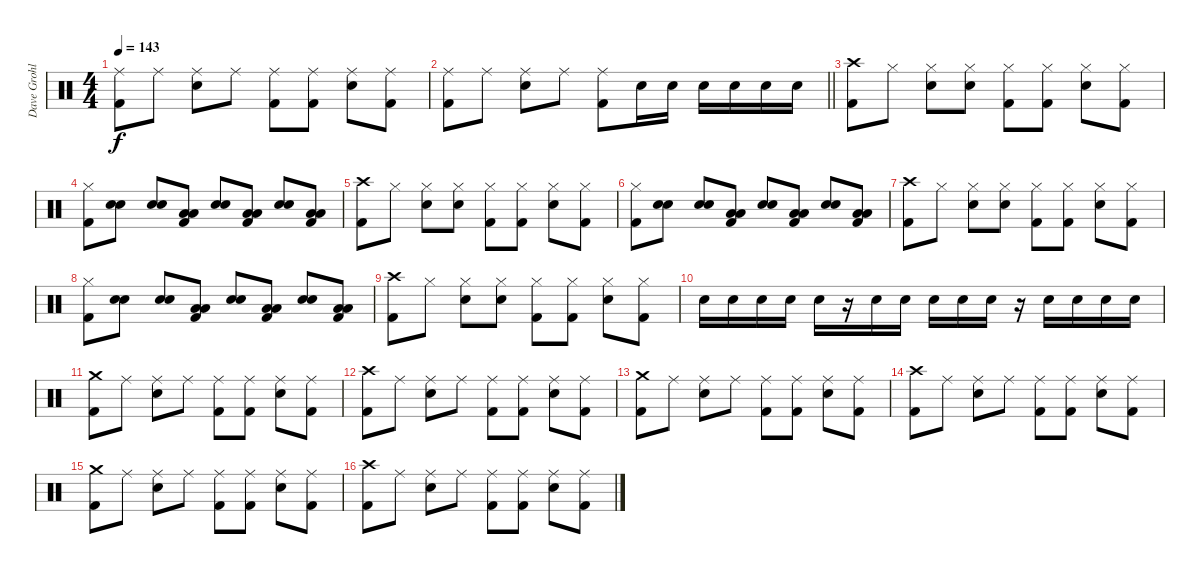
\track ("Dave Grohl" "Dave Grohl") {instrument percussion}
\staff {score}
\articulation defaults
\ts (4 4)
\tempo 143
\clef neutral
\ks c
("Ride (middle)" "Kick (hit) 2").8{dy f} "Ride (middle)".8 ("Ride (middle)" "Snare (hit) 2").8 "Ride (middle)".8 ("Ride (middle)" "Kick (hit) 2").8 ("Ride (middle)" "Kick (hit) 2").8 ("Ride (middle)" "Snare (hit) 2").8 ("Ride (middle)" "Kick (hit) 2").8 |
\barLineRight lightlight
("Ride (middle)" "Kick (hit) 2").8 "Ride (middle)".8 ("Ride (middle)" "Snare (hit) 2").8 "Ride (middle)".8 ("Ride (middle)" "Kick (hit) 2").8 "Snare (hit) 2".16 "Snare (hit) 2".16 "Snare (hit) 2".16 "Snare (hit) 2".16 "Snare (hit) 2".16 "Snare (hit) 2".16 |
("Crash high (hit)" "Kick (hit) 2").8 "Hi-Hat (closed)".8 ("Hi-Hat (closed)" "Snare (hit) 2").8 ("Hi-Hat (closed)" "Snare (hit) 2").8 ("Hi-Hat (closed)" "Kick (hit) 2").8 ("Hi-Hat (closed)" "Kick (hit) 2").8 ("Hi-Hat (closed)" "Snare (hit) 2").8 ("Hi-Hat (closed)" "Kick (hit) 2").8 |
("Hi-Hat (closed)" "Kick (hit) 2").8 ("Snare (hit) 2" "Snare (hit) 2").8{bd 120} ("Snare (hit) 2" "Snare (hit) 2").8{bd 120} ("Low Floor Tom (hit)" "Low Tom (hit)" "Kick (hit) 2").8 ("Snare (hit) 2" "Snare (hit) 2").8{bd 120} ("Low Floor Tom (hit)" "Low Tom (hit)" "Kick (hit) 2").8 ("Snare (hit) 2" "Snare (hit) 2").8{bd 120} ("Low Floor Tom (hit)" "Low Tom (hit)" "Kick (hit) 2").8 |
("Crash high (hit)" "Kick (hit) 2").8 "Hi-Hat (closed)".8 ("Hi-Hat (closed)" "Snare (hit) 2").8 ("Hi-Hat (closed)" "Snare (hit) 2").8 ("Hi-Hat (closed)" "Kick (hit) 2").8 ("Hi-Hat (closed)" "Kick (hit) 2").8 ("Hi-Hat (closed)" "Snare (hit) 2").8 ("Hi-Hat (closed)" "Kick (hit) 2").8 |
("Hi-Hat (closed)" "Kick (hit) 2").8 ("Snare (hit) 2" "Snare (hit) 2").8{bd 120} ("Snare (hit) 2" "Snare (hit) 2").8{bd 120} ("Low Floor Tom (hit)" "Low Tom (hit)" "Kick (hit) 2").8 ("Snare (hit) 2" "Snare (hit) 2").8{bd 120} ("Low Floor Tom (hit)" "Low Tom (hit)" "Kick (hit) 2").8 ("Snare (hit) 2" "Snare (hit) 2").8{bd 120} ("Low Floor Tom (hit)" "Low Tom (hit)" "Kick (hit) 2").8 |
("Crash high (hit)" "Kick (hit) 2").8 "Hi-Hat (closed)".8 ("Hi-Hat (closed)" "Snare (hit) 2").8 ("Hi-Hat (closed)" "Snare (hit) 2").8 ("Hi-Hat (closed)" "Kick (hit) 2").8 ("Hi-Hat (closed)" "Kick (hit) 2").8 ("Hi-Hat (closed)" "Snare (hit) 2").8 ("Hi-Hat (closed)" "Kick (hit) 2").8 |
("Hi-Hat (closed)" "Kick (hit) 2").8 ("Snare (hit) 2" "Snare (hit) 2").8{bd 120} ("Snare (hit) 2" "Snare (hit) 2").8{bd 120} ("Low Floor Tom (hit)" "Low Tom (hit)" "Kick (hit) 2").8 ("Snare (hit) 2" "Snare (hit) 2").8{bd 120} ("Low Floor Tom (hit)" "Low Tom (hit)" "Kick (hit) 2").8 ("Snare (hit) 2" "Snare (hit) 2").8{bd 120} ("Low Floor Tom (hit)" "Low Tom (hit)" "Kick (hit) 2").8 |
("Crash high (hit)" "Kick (hit) 2").8 "Hi-Hat (closed)".8 ("Hi-Hat (closed)" "Snare (hit) 2").8 ("Hi-Hat (closed)" "Snare (hit) 2").8 ("Hi-Hat (closed)" "Kick (hit) 2").8 ("Hi-Hat (closed)" "Kick (hit) 2").8 ("Hi-Hat (closed)" "Snare (hit) 2").8 ("Hi-Hat (closed)" "Kick (hit) 2").8 |
"Snare (hit) 2".16 "Snare (hit) 2".16 "Snare (hit) 2".16 "Snare (hit) 2".16 "Snare (hit) 2".16 r.16 "Snare (hit) 2".16 "Snare (hit) 2".16 "Snare (hit) 2".16 "Snare (hit) 2".16 "Snare (hit) 2".16 r.16 "Snare (hit) 2".16 "Snare (hit) 2".16 "Snare (hit) 2".16 "Snare (hit) 2".16 |
("Crash medium (hit)" "Kick (hit) 2").8 "Ride (middle)".8 ("Ride (middle)" "Snare (hit) 2").8 "Ride (middle)".8 ("Ride (middle)" "Kick (hit) 2").8 ("Ride (middle)" "Kick (hit) 2").8 ("Ride (middle)" "Snare (hit) 2").8 ("Ride (middle)" "Kick (hit) 2").8 |
("Crash high (hit)" "Kick (hit) 2").8 "Ride (middle)".8 ("Ride (middle)" "Snare (hit) 2").8 "Ride (middle)".8 ("Ride (middle)" "Kick (hit) 2").8 ("Ride (middle)" "Kick (hit) 2").8 ("Ride (middle)" "Snare (hit) 2").8 ("Ride (middle)" "Kick (hit) 2").8 |
("Crash medium (hit)" "Kick (hit) 2").8 "Ride (middle)".8 ("Ride (middle)" "Snare (hit) 2").8 "Ride (middle)".8 ("Ride (middle)" "Kick (hit) 2").8 ("Ride (middle)" "Kick (hit) 2").8 ("Ride (middle)" "Snare (hit) 2").8 ("Ride (middle)" "Kick (hit) 2").8 |
("Crash high (hit)" "Kick (hit) 2").8 "Ride (middle)".8 ("Ride (middle)" "Snare (hit) 2").8 "Ride (middle)".8 ("Ride (middle)" "Kick (hit) 2").8 ("Ride (middle)" "Kick (hit) 2").8 ("Ride (middle)" "Snare (hit) 2").8 ("Ride (middle)" "Kick (hit) 2").8 |
("Crash medium (hit)" "Kick (hit) 2").8 "Ride (middle)".8 ("Ride (middle)" "Snare (hit) 2").8 "Ride (middle)".8 ("Ride (middle)" "Kick (hit) 2").8 ("Ride (middle)" "Kick (hit) 2").8 ("Ride (middle)" "Snare (hit) 2").8 ("Ride (middle)" "Kick (hit) 2").8 |
("Crash high (hit)" "Kick (hit) 2").8 "Ride (middle)".8 ("Ride (middle)" "Snare (hit) 2").8 "Ride (middle)".8 ("Ride (middle)" "Kick (hit) 2").8 ("Ride (middle)" "Kick (hit) 2").8 ("Ride (middle)" "Snare (hit) 2").8 ("Ride (middle)" "Kick (hit) 2").8
